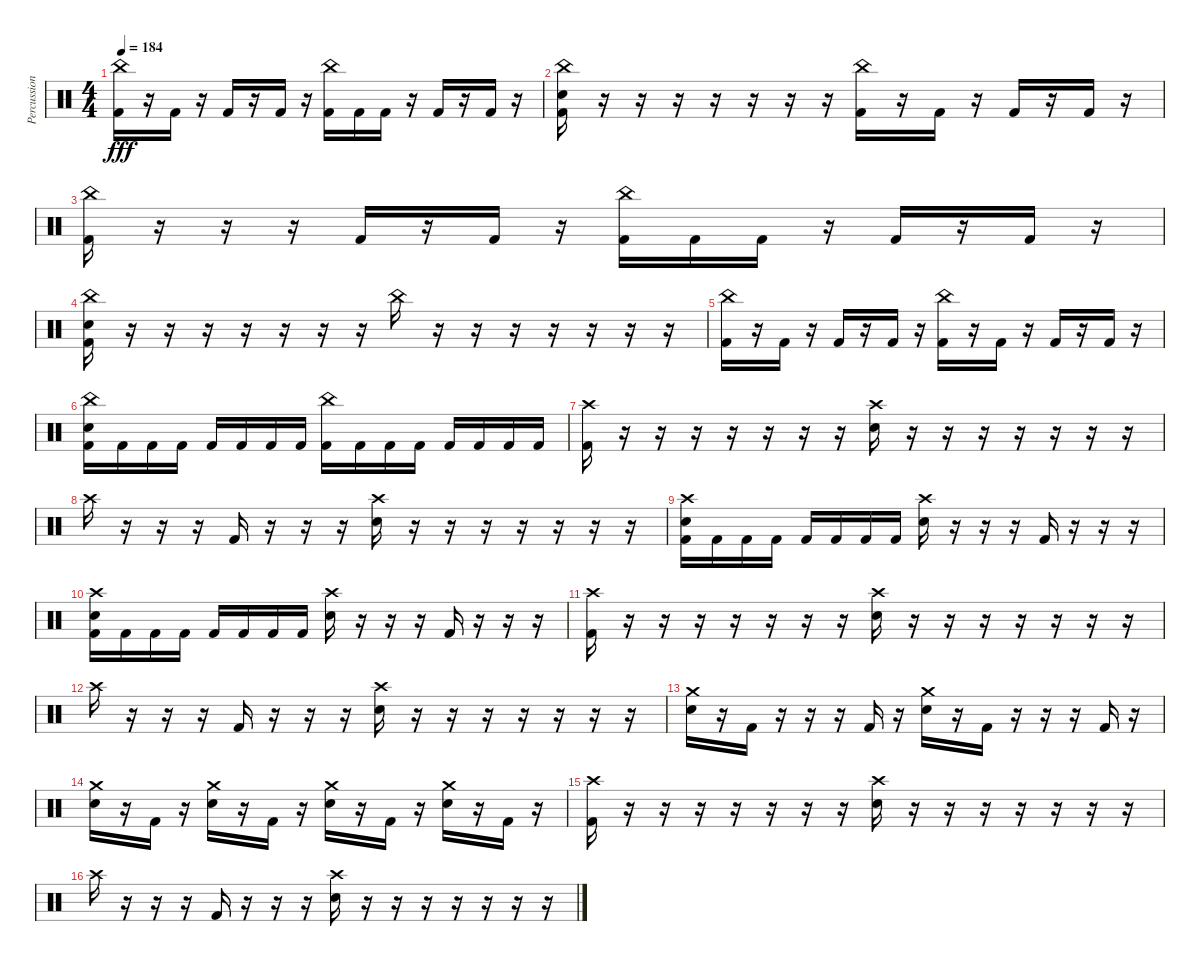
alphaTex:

\track ("Percussion" "Percussion") {instrument percussion}
\staff {score}
\articulation defaults
\ts (4 4)
\tempo 184
\clef neutral
\ks c
("China (hit)" "Kick (hit) 2").16{dy fff} r.16 "Kick (hit) 2".16 r.16 "Kick (hit) 2".16 r.16 "Kick (hit) 2".16 r.16 ("China (hit)" "Kick (hit) 2").16 "Kick (hit) 2".16 "Kick (hit) 2".16 r.16 "Kick (hit) 2".16 r.16 "Kick (hit) 2".16 r.16 |
("China (hit)" "Snare (hit) 2" "Kick (hit) 2").16 r.16 r.16 r.16 r.16 r.16 r.16 r.16 ("China (hit)" "Kick (hit) 2").16 r.16 "Kick (hit) 2".16 r.16 "Kick (hit) 2".16 r.16 "Kick (hit) 2".16 r.16 |
("China (hit)" "Kick (hit) 2").16 r.16 r.16 r.16 "Kick (hit) 2".16 r.16 "Kick (hit) 2".16 r.16 ("China (hit)" "Kick (hit) 2").16 "Kick (hit) 2".16 "Kick (hit) 2".16 r.16 "Kick (hit) 2".16 r.16 "Kick (hit) 2".16 r.16 |
("China (hit)" "Snare (hit) 2" "Kick (hit) 2").16 r.16 r.16 r.16 r.16 r.16 r.16 r.16 "China (hit)".16 r.16 r.16 r.16 r.16 r.16 r.16 r.16 |
("China (hit)" "Kick (hit) 2").16 r.16 "Kick (hit) 2".16 r.16 "Kick (hit) 2".16 r.16 "Kick (hit) 2".16 r.16 ("China (hit)" "Kick (hit) 2").16 r.16 "Kick (hit) 2".16 r.16 "Kick (hit) 2".16 r.16 "Kick (hit) 2".16 r.16 |
("China (hit)" "Snare (hit) 2" "Kick (hit) 2").16 "Kick (hit) 2".16 "Kick (hit) 2".16 "Kick (hit) 2".16 "Kick (hit) 2".16 "Kick (hit) 2".16 "Kick (hit) 2".16 "Kick (hit) 2".16 ("China (hit)" "Kick (hit) 2").16 "Kick (hit) 2".16 "Kick (hit) 2".16 "Kick (hit) 2".16 "Kick (hit) 2".16 "Kick (hit) 2".16 "Kick (hit) 2".16 "Kick (hit) 2".16 |
("Crash high (hit)" "Kick (hit) 2").16 r.16 r.16 r.16 r.16 r.16 r.16 r.16 ("Crash high (hit)" "Snare (hit) 2").16 r.16 r.16 r.16 r.16 r.16 r.16 r.16 |
"Crash high (hit)".16 r.16 r.16 r.16 "Kick (hit) 2".16 r.16 r.16 r.16 ("Crash high (hit)" "Snare (hit) 2").16 r.16 r.16 r.16 r.16 r.16 r.16 r.16 |
("Crash high (hit)" "Snare (hit) 2" "Kick (hit) 2").16 "Kick (hit) 2".16 "Kick (hit) 2".16 "Kick (hit) 2".16 "Kick (hit) 2".16 "Kick (hit) 2".16 "Kick (hit) 2".16 "Kick (hit) 2".16 ("Crash high (hit)" "Snare (hit) 2").16 r.16 r.16 r.16 "Kick (hit) 2".16 r.16 r.16 r.16 |
("Crash high (hit)" "Snare (hit) 2" "Kick (hit) 2").16 "Kick (hit) 2".16 "Kick (hit) 2".16 "Kick (hit) 2".16 "Kick (hit) 2".16 "Kick (hit) 2".16 "Kick (hit) 2".16 "Kick (hit) 2".16 ("Crash high (hit)" "Snare (hit) 2").16 r.16 r.16 r.16 "Kick (hit) 2".16 r.16 r.16 r.16 |
("Crash high (hit)" "Kick (hit) 2").16 r.16 r.16 r.16 r.16 r.16 r.16 r.16 ("Crash high (hit)" "Snare (hit) 2").16 r.16 r.16 r.16 r.16 r.16 r.16 r.16 |
"Crash high (hit)".16 r.16 r.16 r.16 "Kick (hit) 2".16 r.16 r.16 r.16 ("Crash high (hit)" "Snare (hit) 2").16 r.16 r.16 r.16 r.16 r.16 r.16 r.16 |
("Crash medium (hit)" "Snare (hit) 2").16 r.16 "Kick (hit) 2".16 r.16 r.16 r.16 "Kick (hit) 2".16 r.16 ("Crash medium (hit)" "Snare (hit) 2").16 r.16 "Kick (hit) 2".16 r.16 r.16 r.16 "Kick (hit) 2".16 r.16 |
("Crash medium (hit)" "Snare (hit) 2").16 r.16 "Kick (hit) 2".16 r.16 ("Crash medium (hit)" "Snare (hit) 2").16 r.16 "Kick (hit) 2".16 r.16 ("Crash medium (hit)" "Snare (hit) 2").16 r.16 "Kick (hit) 2".16 r.16 ("Crash medium (hit)" "Snare (hit) 2").16 r.16 "Kick (hit) 2".16 r.16 |
("Crash high (hit)" "Kick (hit) 2").16 r.16 r.16 r.16 r.16 r.16 r.16 r.16 ("Crash high (hit)" "Snare (hit) 2").16 r.16 r.16 r.16 r.16 r.16 r.16 r.16 |
"Crash high (hit)".16 r.16 r.16 r.16 "Kick (hit) 2".16 r.16 r.16 r.16 ("Crash high (hit)" "Snare (hit) 2").16 r.16 r.16 r.16 r.16 r.16 r.16 r.16
